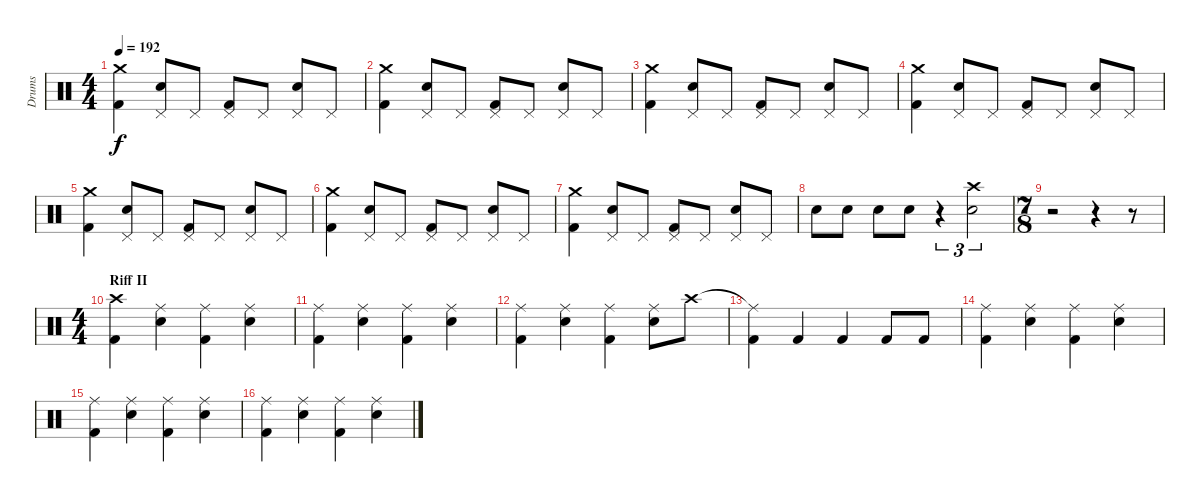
\track ("Drums" "Drums") {instrument percussion}
\staff {score}
\articulation defaults
\ts (4 4)
\tempo 192
\clef neutral
\ks c
("Crash medium (hit)" "Kick (hit) 2").4{dy f} ("Pedal Hi-Hat (hit)" "Electric Snare (hit)").8 "Pedal Hi-Hat (hit)".8 ("Pedal Hi-Hat (hit)" "Kick (hit) 2").8 "Pedal Hi-Hat (hit)".8 ("Pedal Hi-Hat (hit)" "Electric Snare (hit)").8 "Pedal Hi-Hat (hit)".8 |
("Crash medium (hit)" "Kick (hit) 2").4 ("Pedal Hi-Hat (hit)" "Electric Snare (hit)").8 "Pedal Hi-Hat (hit)".8 ("Pedal Hi-Hat (hit)" "Kick (hit) 2").8 "Pedal Hi-Hat (hit)".8 ("Pedal Hi-Hat (hit)" "Electric Snare (hit)").8 "Pedal Hi-Hat (hit)".8 |
("Crash medium (hit)" "Kick (hit) 2").4 ("Pedal Hi-Hat (hit)" "Electric Snare (hit)").8 "Pedal Hi-Hat (hit)".8 ("Pedal Hi-Hat (hit)" "Kick (hit) 2").8 "Pedal Hi-Hat (hit)".8 ("Pedal Hi-Hat (hit)" "Electric Snare (hit)").8 "Pedal Hi-Hat (hit)".8 |
("Crash medium (hit)" "Kick (hit) 2").4 ("Pedal Hi-Hat (hit)" "Electric Snare (hit)").8 "Pedal Hi-Hat (hit)".8 ("Pedal Hi-Hat (hit)" "Kick (hit) 2").8 "Pedal Hi-Hat (hit)".8 ("Pedal Hi-Hat (hit)" "Electric Snare (hit)").8 "Pedal Hi-Hat (hit)".8 |
("Crash medium (hit)" "Kick (hit) 2").4 ("Pedal Hi-Hat (hit)" "Electric Snare (hit)").8 "Pedal Hi-Hat (hit)".8 ("Pedal Hi-Hat (hit)" "Kick (hit) 2").8 "Pedal Hi-Hat (hit)".8 ("Pedal Hi-Hat (hit)" "Electric Snare (hit)").8 "Pedal Hi-Hat (hit)".8 |
("Crash medium (hit)" "Kick (hit) 2").4 ("Pedal Hi-Hat (hit)" "Electric Snare (hit)").8 "Pedal Hi-Hat (hit)".8 ("Pedal Hi-Hat (hit)" "Kick (hit) 2").8 "Pedal Hi-Hat (hit)".8 ("Pedal Hi-Hat (hit)" "Electric Snare (hit)").8 "Pedal Hi-Hat (hit)".8 |
("Crash medium (hit)" "Kick (hit) 2").4 ("Pedal Hi-Hat (hit)" "Electric Snare (hit)").8 "Pedal Hi-Hat (hit)".8 ("Pedal Hi-Hat (hit)" "Kick (hit) 2").8 "Pedal Hi-Hat (hit)".8 ("Pedal Hi-Hat (hit)" "Electric Snare (hit)").8 "Pedal Hi-Hat (hit)".8 |
"Electric Snare (hit)".8 "Electric Snare (hit)".8 "Electric Snare (hit)".8 "Electric Snare (hit)".8 r.4{tu (3 2)} ("Crash high (hit)" "Electric Snare (hit)").2{tu (3 2)} |
\ts (7 8)
r.2 r.4 r.8 |
\ts (4 4)
\section ("" "Riff II")
("Crash high (hit)" "Kick (hit) 2").4 ("Ride (middle)" "Electric Snare (hit)").4 ("Ride (middle)" "Kick (hit) 2").4 ("Ride (middle)" "Electric Snare (hit)").4 |
("Ride (middle)" "Kick (hit) 2").4 ("Ride (middle)" "Electric Snare (hit)").4 ("Ride (middle)" "Kick (hit) 2").4 ("Ride (middle)" "Electric Snare (hit)").4 |
("Ride (middle)" "Kick (hit) 2").4 ("Ride (middle)" "Electric Snare (hit)").4 ("Ride (middle)" "Kick (hit) 2").4 ("Ride (middle)" "Electric Snare (hit)").8 "Crash high (hit)".8 |
("Ride (middle)"{t} "Kick (hit) 2").4 "Kick (hit) 2".4 "Kick (hit) 2".4 "Kick (hit) 2".8 "Kick (hit) 2".8 |
("Ride (middle)" "Kick (hit) 2").4 ("Ride (middle)" "Electric Snare (hit)").4 ("Ride (middle)" "Kick (hit) 2").4 ("Ride (middle)" "Electric Snare (hit)").4 |
("Ride (middle)" "Kick (hit) 2").4 ("Ride (middle)" "Electric Snare (hit)").4 ("Ride (middle)" "Kick (hit) 2").4 ("Ride (middle)" "Electric Snare (hit)").4 |
("Ride (middle)" "Kick (hit) 2").4 ("Ride (middle)" "Electric Snare (hit)").4 ("Ride (middle)" "Kick (hit) 2").4 ("Ride (middle)" "Electric Snare (hit)").4
